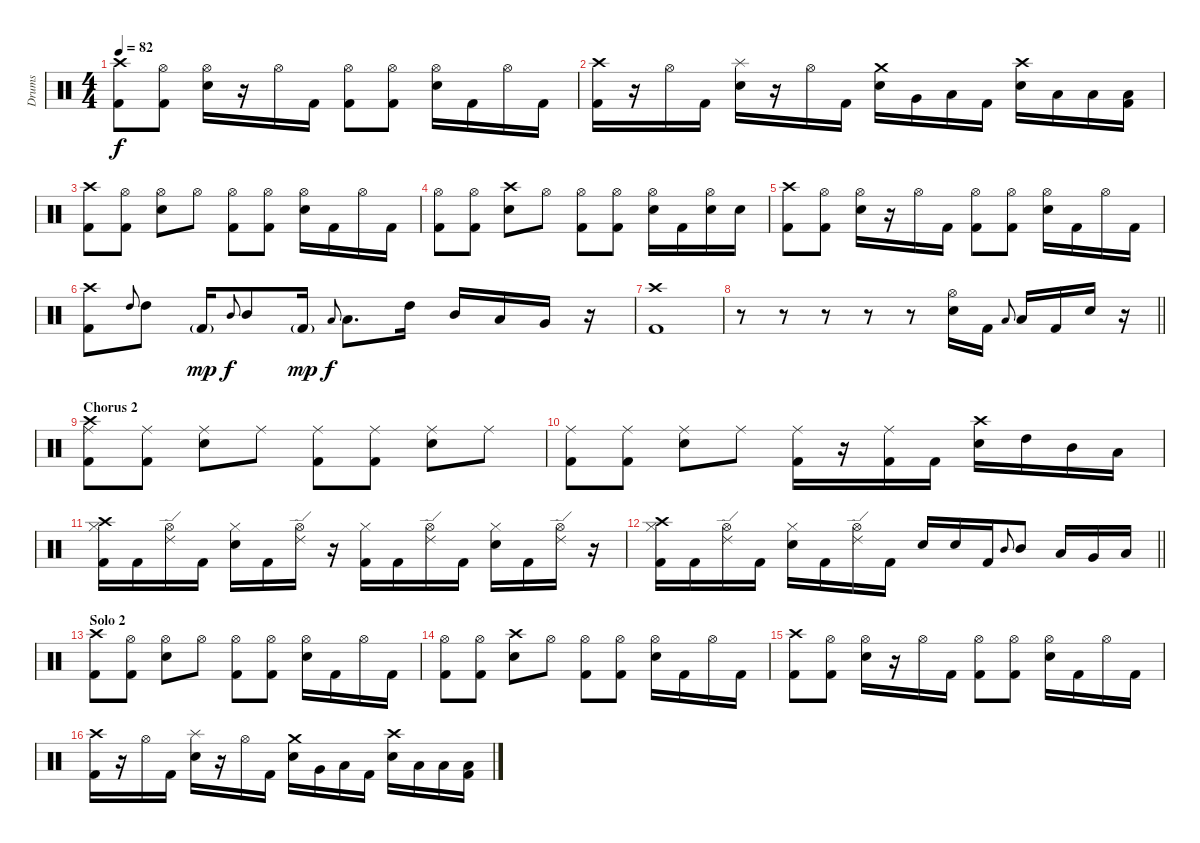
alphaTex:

\track ("Drums" "Drums") {instrument percussion}
\staff {score}
\articulation defaults
\ts (4 4)
\tempo 82
\clef neutral
\ks c
("Kick (hit) 2" "Crash high (hit)").8{dy f} ("Kick (hit) 2" "Hi-Hat (open)").8 ("Electric Snare (hit)" "Hi-Hat (open)").16 r.16 "Hi-Hat (open)".16 "Kick (hit) 2".16 ("Kick (hit) 2" "Hi-Hat (open)").8 ("Kick (hit) 2" "Hi-Hat (open)").8 ("Electric Snare (hit)" "Hi-Hat (open)").16 "Kick (hit) 2".16 "Hi-Hat (open)".16 "Kick (hit) 2".16 |
("Kick (hit) 2" "Crash high (hit)").16 r.16 "Hi-Hat (open)".16 "Kick (hit) 2".16 ("Electric Snare (hit)" "Splash (hit)").16 r.16 "Hi-Hat (open)".16 "Kick (hit) 2".16 ("Electric Snare (hit)" "Crash medium (hit)").16 "Very Low Tom (hit)".16 "Low Floor Tom (hit)".16 "Kick (hit) 2".16 ("Electric Snare (hit)" "Crash high (hit)").16 "Low Floor Tom (hit)".16 "Low Floor Tom (hit)".16 ("Kick (hit) 2" "Low Floor Tom (hit)").16 |
("Kick (hit) 2" "Crash high (hit)").8 ("Kick (hit) 2" "Hi-Hat (open)").8 ("Electric Snare (hit)" "Hi-Hat (open)").8 "Hi-Hat (open)".8 ("Kick (hit) 2" "Hi-Hat (open)").8 ("Kick (hit) 2" "Hi-Hat (open)").8 ("Electric Snare (hit)" "Hi-Hat (open)").16 "Kick (hit) 2".16 "Hi-Hat (open)".16 "Kick (hit) 2".16 |
("Kick (hit) 2" "Hi-Hat (open)").8 ("Kick (hit) 2" "Hi-Hat (open)").8 ("Electric Snare (hit)" "Crash high (hit)").8 "Hi-Hat (open)".8 ("Kick (hit) 2" "Hi-Hat (open)").8 ("Kick (hit) 2" "Hi-Hat (open)").8 ("Electric Snare (hit)" "Hi-Hat (open)").16 "Kick (hit) 2".16 ("Hi-Hat (open)" "Electric Snare (hit)").16 "Electric Snare (hit)".16 |
("Kick (hit) 2" "Crash high (hit)").8 ("Kick (hit) 2" "Hi-Hat (open)").8 ("Electric Snare (hit)" "Hi-Hat (open)").16 r.16 "Hi-Hat (open)".16 "Kick (hit) 2".16 ("Kick (hit) 2" "Hi-Hat (open)").8 ("Kick (hit) 2" "Hi-Hat (open)").8 ("Electric Snare (hit)" "Hi-Hat (open)").16 "Kick (hit) 2".16 "Hi-Hat (open)".16 "Kick (hit) 2".16 |
("Crash high (hit)" "Kick (hit) 2").8 "High Tom (hit)".8{gr onbeat} "High Tom (hit)".8 "Kick (hit) 2"{g}.16{dy mp} "Mid Tom (hit)".8{gr onbeat dy f} "Mid Tom (hit)".8 "Kick (hit) 2"{g}.16{dy mp} "Low Tom (hit)".8{gr onbeat dy f} "Low Tom (hit)".8{d} "High Tom (hit)".16 "Mid Tom (hit)".16 "Low Tom (hit)".16 "Very Low Tom (hit)".16 r.16 |
("Kick (hit) 2" "Crash high (hit)").1 |
\barLineRight lightlight
r.8 r.8 r.8 r.8 r.8 ("Hi-Hat (open)" "Electric Snare (hit)").16 "Kick (hit) 2".16 "Low Tom (hit)".8{gr onbeat} "Low Tom (hit)".16 "Kick (hit) 2".16 "Electric Snare (hit)".16 r.16 |
\section ("" "Chorus 2")
("Crash high (hit)" "Kick (hit) 2" "Ride (middle)").8 ("Kick (hit) 2" "Ride (middle)").8 ("Electric Snare (hit)" "Ride (middle)").8 "Ride (middle)".8 ("Kick (hit) 2" "Ride (middle)").8 ("Kick (hit) 2" "Ride (middle)").8 ("Electric Snare (hit)" "Ride (middle)").8 "Ride (middle)".8 |
("Kick (hit) 2" "Ride (middle)").8 ("Kick (hit) 2" "Ride (middle)").8 ("Electric Snare (hit)" "Ride (middle)").8 "Ride (middle)".8 ("Kick (hit) 2" "Ride (middle)").16 r.16 ("Kick (hit) 2" "Ride (middle)").16 "Kick (hit) 2".16 ("Electric Snare (hit)" "Crash high (hit)").16 "High Tom (hit)".16 "Mid Tom (hit)".16 "Low Tom (hit)".16 |
("Kick (hit) 2" "Crash high (hit)" "Hi-Hat (closed)").16 "Kick (hit) 2".16 ("Ride (edge) 2" "Hi-Hat (open)").16 "Kick (hit) 2".16 ("Electric Snare (hit)" "Hi-Hat (closed)").16 "Kick (hit) 2".16 ("Ride (edge) 2" "Hi-Hat (open)").16 r.16 ("Kick (hit) 2" "Hi-Hat (closed)").16 "Kick (hit) 2".16 ("Ride (edge) 2" "Hi-Hat (open)").16 "Kick (hit) 2".16 ("Electric Snare (hit)" "Hi-Hat (closed)").16 "Kick (hit) 2".16 ("Ride (edge) 2" "Hi-Hat (open)").16 r.16 |
\barLineRight lightlight
("Kick (hit) 2" "Crash high (hit)" "Hi-Hat (closed)").16 "Kick (hit) 2".16 ("Ride (edge) 2" "Hi-Hat (open)").16 "Kick (hit) 2".16 ("Electric Snare (hit)" "Hi-Hat (closed)").16 "Kick (hit) 2".16 ("Ride (edge) 2" "Hi-Hat (open)").16 "Kick (hit) 2".16 "Electric Snare (hit)".16 "Electric Snare (hit)".16 "Kick (hit) 2".16 "Mid Tom (hit)".8{gr onbeat} "Mid Tom (hit)".8 "Low Tom (hit)".16 "Very Low Tom (hit)".16 "Low Floor Tom (hit)".16 |
\section ("" "Solo 2")
("Kick (hit) 2" "Crash high (hit)").8 ("Kick (hit) 2" "Hi-Hat (open)").8 ("Electric Snare (hit)" "Hi-Hat (open)").8 "Hi-Hat (open)".8 ("Kick (hit) 2" "Hi-Hat (open)").8 ("Kick (hit) 2" "Hi-Hat (open)").8 ("Electric Snare (hit)" "Hi-Hat (open)").16 "Kick (hit) 2".16 "Hi-Hat (open)".16 "Kick (hit) 2".16 |
("Kick (hit) 2" "Hi-Hat (open)").8 ("Kick (hit) 2" "Hi-Hat (open)").8 ("Electric Snare (hit)" "Crash high (hit)").8 "Hi-Hat (open)".8 ("Kick (hit) 2" "Hi-Hat (open)").8 ("Kick (hit) 2" "Hi-Hat (open)").8 ("Electric Snare (hit)" "Hi-Hat (open)").16 "Kick (hit) 2".16 "Hi-Hat (open)".16 "Kick (hit) 2".16 |
("Kick (hit) 2" "Crash high (hit)").8 ("Kick (hit) 2" "Hi-Hat (open)").8 ("Electric Snare (hit)" "Hi-Hat (open)").16 r.16 "Hi-Hat (open)".16 "Kick (hit) 2".16 ("Kick (hit) 2" "Hi-Hat (open)").8 ("Kick (hit) 2" "Hi-Hat (open)").8 ("Electric Snare (hit)" "Hi-Hat (open)").16 "Kick (hit) 2".16 "Hi-Hat (open)".16 "Kick (hit) 2".16 |
("Kick (hit) 2" "Crash high (hit)").16 r.16 "Hi-Hat (open)".16 "Kick (hit) 2".16 ("Electric Snare (hit)" "Splash (hit)").16 r.16 "Hi-Hat (open)".16 "Kick (hit) 2".16 ("Electric Snare (hit)" "Crash medium (hit)").16 "Very Low Tom (hit)".16 "Low Floor Tom (hit)".16 "Kick (hit) 2".16 ("Electric Snare (hit)" "Crash high (hit)").16 "Low Floor Tom (hit)".16 "Low Floor Tom (hit)".16 ("Kick (hit) 2" "Low Floor Tom (hit)").16
